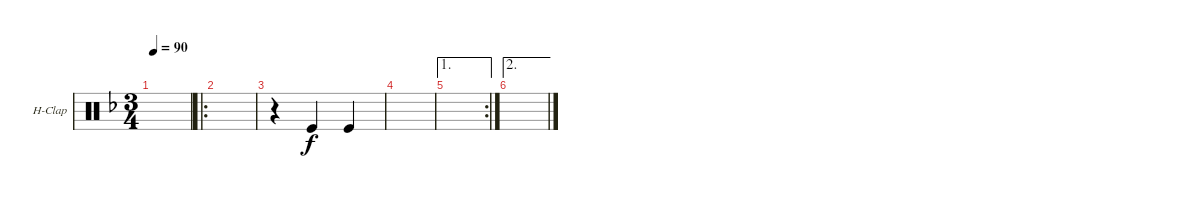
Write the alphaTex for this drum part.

\defaultSystemsLayout 4
\bracketExtendMode groupsimilarinstruments
\firstSystemTrackNameOrientation horizontal
\otherSystemsTrackNameOrientation horizontal
\track ("Hand Clap" "H-Clap") {instrument percussion}
\staff {score}
\articulation defaults
\ts (3 4)
\tempo 90
\clef neutral
\ks dminor
|
\ro
|
r.4 "Kick (hit)".4 "Kick (hit)".4 |
|
\ae 1
\rc 2
|
\ae 2
